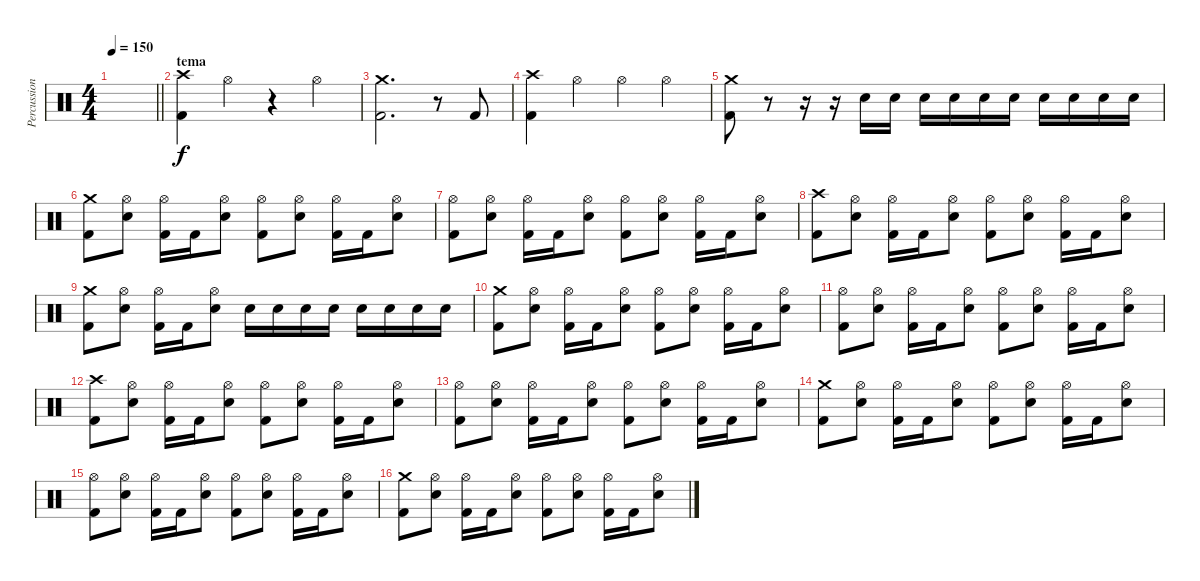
\track ("Percussion" "Percussion") {instrument percussion}
\staff {score}
\articulation defaults
\ts (4 4)
\tempo 150
\clef neutral
\barLineRight lightlight
\ks c
|
\section ("" "tema")
("Kick (hit) 2" "Crash high (hit)").4 "Hi-Hat (open)".4 r.4 "Hi-Hat (open)".4 |
("Kick (hit) 2" "Crash medium (hit)").2{d} r.8 "Kick (hit) 2".8 |
("Kick (hit) 2" "Crash high (hit)").4 "Hi-Hat (open)".4 "Hi-Hat (open)".4 "Hi-Hat (open)".4 |
("Kick (hit) 2" "Crash medium (hit)").8 r.8 r.16 r.16 "Snare (hit) 2".16 "Snare (hit) 2".16 "Snare (hit) 2".16 "Snare (hit) 2".16 "Snare (hit) 2".16 "Snare (hit) 2".16 "Snare (hit) 2".16 "Snare (hit) 2".16 "Snare (hit) 2".16 "Snare (hit) 2".16 |
("Kick (hit) 2" "Crash medium (hit)").8 ("Snare (hit) 2" "Hi-Hat (open)").8 ("Kick (hit) 2" "Hi-Hat (open)").16 "Kick (hit) 2".16 ("Snare (hit) 2" "Hi-Hat (open)").8 ("Kick (hit) 2" "Hi-Hat (open)").8 ("Snare (hit) 2" "Hi-Hat (open)").8 ("Kick (hit) 2" "Hi-Hat (open)").16 "Kick (hit) 2".16 ("Snare (hit) 2" "Hi-Hat (open)").8 |
("Kick (hit) 2" "Hi-Hat (open)").8 ("Snare (hit) 2" "Hi-Hat (open)").8 ("Kick (hit) 2" "Hi-Hat (open)").16 "Kick (hit) 2".16 ("Snare (hit) 2" "Hi-Hat (open)").8 ("Kick (hit) 2" "Hi-Hat (open)").8 ("Snare (hit) 2" "Hi-Hat (open)").8 ("Kick (hit) 2" "Hi-Hat (open)").16 "Kick (hit) 2".16 ("Snare (hit) 2" "Hi-Hat (open)").8 |
("Kick (hit) 2" "Crash high (hit)").8 ("Snare (hit) 2" "Hi-Hat (open)").8 ("Kick (hit) 2" "Hi-Hat (open)").16 "Kick (hit) 2".16 ("Snare (hit) 2" "Hi-Hat (open)").8 ("Kick (hit) 2" "Hi-Hat (open)").8 ("Snare (hit) 2" "Hi-Hat (open)").8 ("Kick (hit) 2" "Hi-Hat (open)").16 "Kick (hit) 2".16 ("Snare (hit) 2" "Hi-Hat (open)").8 |
("Kick (hit) 2" "Crash medium (hit)").8 ("Snare (hit) 2" "Hi-Hat (open)").8 ("Kick (hit) 2" "Hi-Hat (open)").16 "Kick (hit) 2".16 ("Snare (hit) 2" "Hi-Hat (open)").8 "Snare (hit) 2".16 "Snare (hit) 2".16 "Snare (hit) 2".16 "Snare (hit) 2".16 "Snare (hit) 2".16 "Snare (hit) 2".16 "Snare (hit) 2".16 "Snare (hit) 2".16 |
("Kick (hit) 2" "Crash medium (hit)").8 ("Snare (hit) 2" "Hi-Hat (open)").8 ("Kick (hit) 2" "Hi-Hat (open)").16 "Kick (hit) 2".16 ("Snare (hit) 2" "Hi-Hat (open)").8 ("Kick (hit) 2" "Hi-Hat (open)").8 ("Snare (hit) 2" "Hi-Hat (open)").8 ("Kick (hit) 2" "Hi-Hat (open)").16 "Kick (hit) 2".16 ("Snare (hit) 2" "Hi-Hat (open)").8 |
("Kick (hit) 2" "Hi-Hat (open)").8 ("Snare (hit) 2" "Hi-Hat (open)").8 ("Kick (hit) 2" "Hi-Hat (open)").16 "Kick (hit) 2".16 ("Snare (hit) 2" "Hi-Hat (open)").8 ("Kick (hit) 2" "Hi-Hat (open)").8 ("Snare (hit) 2" "Hi-Hat (open)").8 ("Kick (hit) 2" "Hi-Hat (open)").16 "Kick (hit) 2".16 ("Snare (hit) 2" "Hi-Hat (open)").8 |
("Kick (hit) 2" "Crash high (hit)").8 ("Snare (hit) 2" "Hi-Hat (open)").8 ("Kick (hit) 2" "Hi-Hat (open)").16 "Kick (hit) 2".16 ("Snare (hit) 2" "Hi-Hat (open)").8 ("Kick (hit) 2" "Hi-Hat (open)").8 ("Snare (hit) 2" "Hi-Hat (open)").8 ("Kick (hit) 2" "Hi-Hat (open)").16 "Kick (hit) 2".16 ("Snare (hit) 2" "Hi-Hat (open)").8 |
("Kick (hit) 2" "Hi-Hat (open)").8 ("Snare (hit) 2" "Hi-Hat (open)").8 ("Kick (hit) 2" "Hi-Hat (open)").16 "Kick (hit) 2".16 ("Snare (hit) 2" "Hi-Hat (open)").8 ("Kick (hit) 2" "Hi-Hat (open)").8 ("Snare (hit) 2" "Hi-Hat (open)").8 ("Kick (hit) 2" "Hi-Hat (open)").16 "Kick (hit) 2".16 ("Snare (hit) 2" "Hi-Hat (open)").8 |
("Kick (hit) 2" "Crash medium (hit)").8 ("Snare (hit) 2" "Hi-Hat (open)").8 ("Kick (hit) 2" "Hi-Hat (open)").16 "Kick (hit) 2".16 ("Snare (hit) 2" "Hi-Hat (open)").8 ("Kick (hit) 2" "Hi-Hat (open)").8 ("Snare (hit) 2" "Hi-Hat (open)").8 ("Kick (hit) 2" "Hi-Hat (open)").16 "Kick (hit) 2".16 ("Snare (hit) 2" "Hi-Hat (open)").8 |
("Kick (hit) 2" "Hi-Hat (open)").8 ("Snare (hit) 2" "Hi-Hat (open)").8 ("Kick (hit) 2" "Hi-Hat (open)").16 "Kick (hit) 2".16 ("Snare (hit) 2" "Hi-Hat (open)").8 ("Kick (hit) 2" "Hi-Hat (open)").8 ("Snare (hit) 2" "Hi-Hat (open)").8 ("Kick (hit) 2" "Hi-Hat (open)").16 "Kick (hit) 2".16 ("Snare (hit) 2" "Hi-Hat (open)").8 |
("Kick (hit) 2" "Crash medium (hit)").8 ("Snare (hit) 2" "Hi-Hat (open)").8 ("Kick (hit) 2" "Hi-Hat (open)").16 "Kick (hit) 2".16 ("Snare (hit) 2" "Hi-Hat (open)").8 ("Kick (hit) 2" "Hi-Hat (open)").8 ("Snare (hit) 2" "Hi-Hat (open)").8 ("Kick (hit) 2" "Hi-Hat (open)").16 "Kick (hit) 2".16 ("Snare (hit) 2" "Hi-Hat (open)").8
